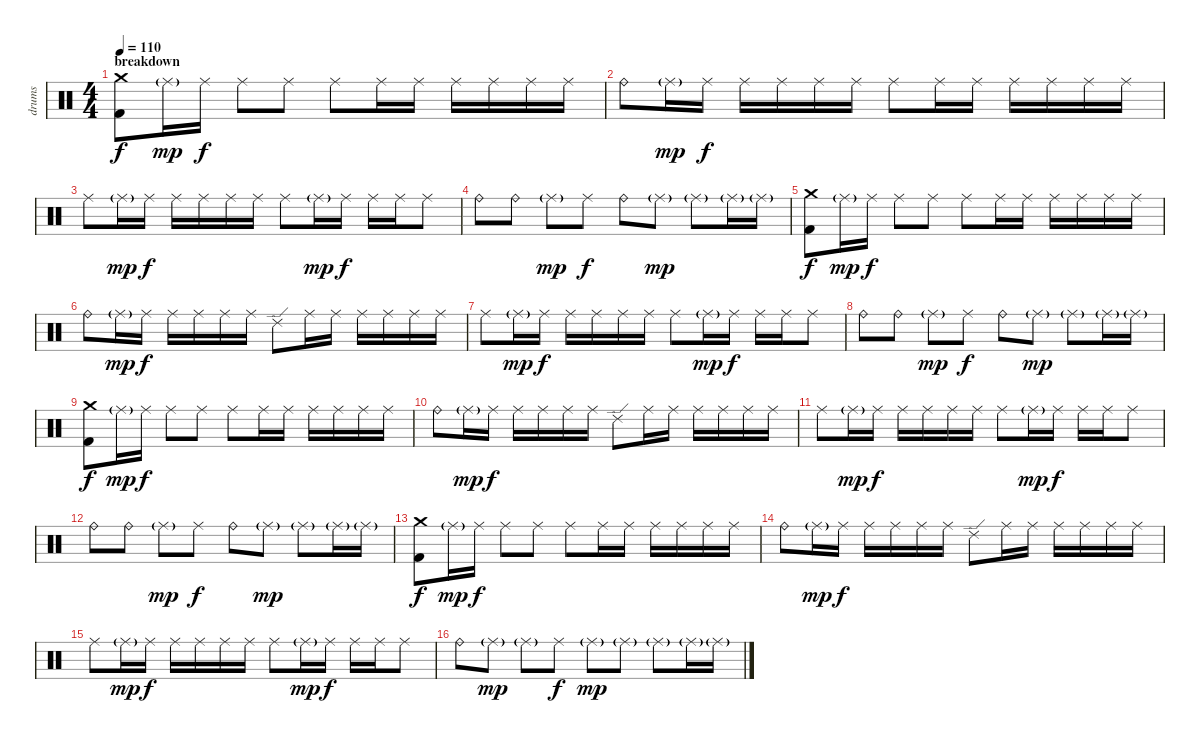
\track ("drums" "drums") {instrument percussion}
\staff {score}
\articulation defaults
\ts (4 4)
\section ("" "breakdown")
\tempo 110
\clef neutral
\ks c
("Crash medium (hit)" "Kick (hit) 2").8{dy f} "Ride (middle)"{g}.16{dy mp} "Ride (middle)".16{dy f} "Ride (middle)".8 "Ride (middle)".8 "Ride (middle)".8 "Ride (middle)".16 "Ride (middle)".16 "Ride (middle)".16 "Ride (middle)".16 "Ride (middle)".16 "Ride (middle)".16 |
"Ride (bell)".8 "Ride (middle)"{g}.16{dy mp} "Ride (middle)".16{dy f} "Ride (middle)".16 "Ride (middle)".16 "Ride (middle)".16 "Ride (middle)".16 "Ride (middle)".8 "Ride (middle)".16 "Ride (middle)".16 "Ride (middle)".16 "Ride (middle)".16 "Ride (middle)".16 "Ride (middle)".16 |
"Ride (middle)".8 "Ride (middle)"{g}.16{dy mp} "Ride (middle)".16{dy f} "Ride (middle)".16 "Ride (middle)".16 "Ride (middle)".16 "Ride (middle)".16 "Ride (middle)".8 "Ride (middle)"{g}.16{dy mp} "Ride (middle)".16{dy f} "Ride (middle)".16 "Ride (middle)".16 "Ride (middle)".8 |
"Ride (bell)".8 "Ride (bell)".8 "Ride (middle)"{g}.8{dy mp} "Ride (middle)".8{dy f} "Ride (bell)".8 "Ride (middle)"{g}.8{dy mp} "Ride (middle)"{g}.8 "Ride (middle)"{g}.16 "Ride (middle)"{g}.16 |
("Crash medium (hit)" "Kick (hit) 2").8{dy f} "Ride (middle)"{g}.16{dy mp} "Ride (middle)".16{dy f} "Ride (middle)".8 "Ride (middle)".8 "Ride (middle)".8 "Ride (middle)".16 "Ride (middle)".16 "Ride (middle)".16 "Ride (middle)".16 "Ride (middle)".16 "Ride (middle)".16 |
"Ride (bell)".8 "Ride (middle)"{g}.16{dy mp} "Ride (middle)".16{dy f} "Ride (middle)".16 "Ride (middle)".16 "Ride (middle)".16 "Ride (middle)".16 "Ride (edge) 2".8 "Ride (middle)".16 "Ride (middle)".16 "Ride (middle)".16 "Ride (middle)".16 "Ride (middle)".16 "Ride (middle)".16 |
"Ride (middle)".8 "Ride (middle)"{g}.16{dy mp} "Ride (middle)".16{dy f} "Ride (middle)".16 "Ride (middle)".16 "Ride (middle)".16 "Ride (middle)".16 "Ride (middle)".8 "Ride (middle)"{g}.16{dy mp} "Ride (middle)".16{dy f} "Ride (middle)".16 "Ride (middle)".16 "Ride (middle)".8 |
"Ride (bell)".8 "Ride (bell)".8 "Ride (middle)"{g}.8{dy mp} "Ride (middle)".8{dy f} "Ride (bell)".8 "Ride (middle)"{g}.8{dy mp} "Ride (middle)"{g}.8 "Ride (middle)"{g}.16 "Ride (middle)"{g}.16 |
("Crash medium (hit)" "Kick (hit) 2").8{dy f} "Ride (middle)"{g}.16{dy mp} "Ride (middle)".16{dy f} "Ride (middle)".8 "Ride (middle)".8 "Ride (middle)".8 "Ride (middle)".16 "Ride (middle)".16 "Ride (middle)".16 "Ride (middle)".16 "Ride (middle)".16 "Ride (middle)".16 |
"Ride (bell)".8 "Ride (middle)"{g}.16{dy mp} "Ride (middle)".16{dy f} "Ride (middle)".16 "Ride (middle)".16 "Ride (middle)".16 "Ride (middle)".16 "Ride (edge) 2".8 "Ride (middle)".16 "Ride (middle)".16 "Ride (middle)".16 "Ride (middle)".16 "Ride (middle)".16 "Ride (middle)".16 |
"Ride (middle)".8 "Ride (middle)"{g}.16{dy mp} "Ride (middle)".16{dy f} "Ride (middle)".16 "Ride (middle)".16 "Ride (middle)".16 "Ride (middle)".16 "Ride (middle)".8 "Ride (middle)"{g}.16{dy mp} "Ride (middle)".16{dy f} "Ride (middle)".16 "Ride (middle)".16 "Ride (middle)".8 |
"Ride (bell)".8 "Ride (bell)".8 "Ride (middle)"{g}.8{dy mp} "Ride (middle)".8{dy f} "Ride (bell)".8 "Ride (middle)"{g}.8{dy mp} "Ride (middle)"{g}.8 "Ride (middle)"{g}.16 "Ride (middle)"{g}.16 |
("Crash medium (hit)" "Kick (hit) 2").8{dy f} "Ride (middle)"{g}.16{dy mp} "Ride (middle)".16{dy f} "Ride (middle)".8 "Ride (middle)".8 "Ride (middle)".8 "Ride (middle)".16 "Ride (middle)".16 "Ride (middle)".16 "Ride (middle)".16 "Ride (middle)".16 "Ride (middle)".16 |
"Ride (bell)".8 "Ride (middle)"{g}.16{dy mp} "Ride (middle)".16{dy f} "Ride (middle)".16 "Ride (middle)".16 "Ride (middle)".16 "Ride (middle)".16 "Ride (edge) 2".8 "Ride (middle)".16 "Ride (middle)".16 "Ride (middle)".16 "Ride (middle)".16 "Ride (middle)".16 "Ride (middle)".16 |
"Ride (middle)".8 "Ride (middle)"{g}.16{dy mp} "Ride (middle)".16{dy f} "Ride (middle)".16 "Ride (middle)".16 "Ride (middle)".16 "Ride (middle)".16 "Ride (middle)".8 "Ride (middle)"{g}.16{dy mp} "Ride (middle)".16{dy f} "Ride (middle)".16 "Ride (middle)".16 "Ride (middle)".8 |
"Ride (bell)".8 "Ride (middle)"{g}.8{dy mp} "Ride (middle)"{g}.8 "Ride (middle)".8{dy f} "Ride (middle)"{g}.8{dy mp} "Ride (middle)"{g}.8 "Ride (middle)"{g}.8 "Ride (middle)"{g}.16 "Ride (middle)"{g}.16
